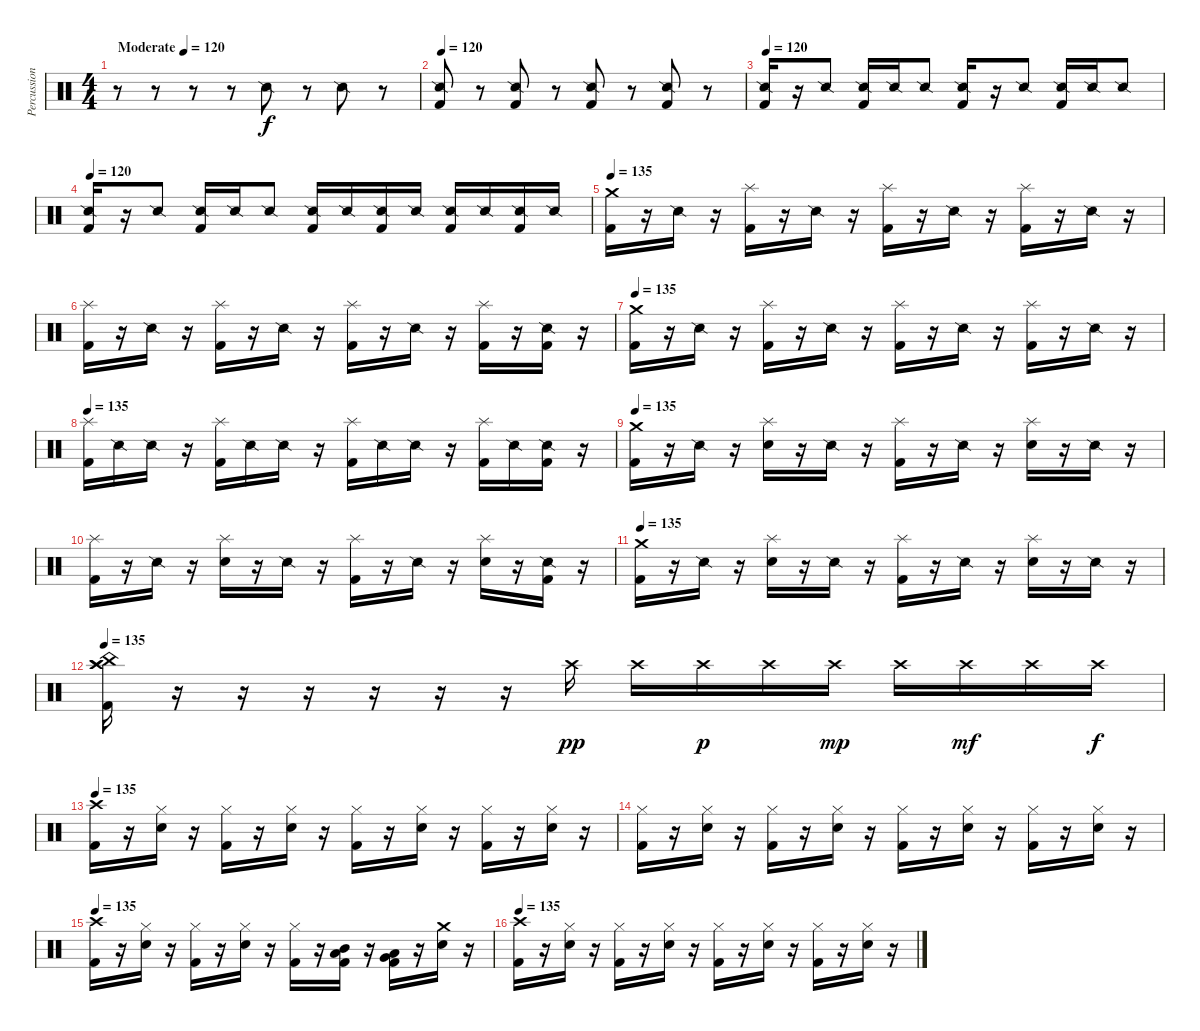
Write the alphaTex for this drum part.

\track ("Percussion" "Percussion") {instrument percussion}
\staff {score}
\articulation defaults
\ts (4 4)
\tempo (120 "Moderate")
\clef neutral
\ks c
r.8{dy f} r.8 r.8 r.8 "Snare (side stick) 2".8 r.8 "Snare (side stick) 2".8 r.8 |
\tempo 120
("Snare (side stick) 2" "Kick (hit) 2").8 r.8 ("Snare (side stick) 2" "Kick (hit) 2").8 r.8 ("Snare (side stick) 2" "Kick (hit) 2").8 r.8 ("Snare (side stick) 2" "Kick (hit) 2").8 r.8 |
\tempo 120
("Snare (side stick) 2" "Kick (hit) 2").16 r.16 "Snare (side stick) 2".8 ("Snare (side stick) 2" "Kick (hit) 2").16 "Snare (side stick) 2".16 "Snare (side stick) 2".8 ("Snare (side stick) 2" "Kick (hit) 2").16 r.16 "Snare (side stick) 2".8 ("Snare (side stick) 2" "Kick (hit) 2").16 "Snare (side stick) 2".16 "Snare (side stick) 2".8 |
\tempo 120
("Snare (side stick) 2" "Kick (hit) 2").16 r.16 "Snare (side stick) 2".8 ("Snare (side stick) 2" "Kick (hit) 2").16 "Snare (side stick) 2".16 "Snare (side stick) 2".8 ("Snare (side stick) 2" "Kick (hit) 2").16 "Snare (side stick) 2".16 ("Snare (side stick) 2" "Kick (hit) 2").16 "Snare (side stick) 2".16 ("Snare (side stick) 2" "Kick (hit) 2").16 "Snare (side stick) 2".16 ("Snare (side stick) 2" "Kick (hit) 2").16 "Snare (side stick) 2".16 |
\tempo 135
("Crash medium (hit)" "Kick (hit) 2").16 r.16 "Snare (side stick) 2".16 r.16 ("Splash (hit)" "Kick (hit) 2").16 r.16 "Snare (side stick) 2".16 r.16 ("Splash (hit)" "Kick (hit) 2").16 r.16 "Snare (side stick) 2".16 r.16 ("Splash (hit)" "Kick (hit) 2").16 r.16 "Snare (side stick) 2".16 r.16 |
("Splash (hit)" "Kick (hit) 2").16 r.16 "Snare (side stick) 2".16 r.16 ("Splash (hit)" "Kick (hit) 2").16 r.16 "Snare (side stick) 2".16 r.16 ("Splash (hit)" "Kick (hit) 2").16 r.16 "Snare (side stick) 2".16 r.16 ("Splash (hit)" "Kick (hit) 2").16 r.16 ("Snare (side stick) 2" "Kick (hit) 2").16 r.16 |
\tempo 135
("Crash medium (hit)" "Kick (hit) 2").16 r.16 "Snare (side stick) 2".16 r.16 ("Splash (hit)" "Kick (hit) 2").16 r.16 "Snare (side stick) 2".16 r.16 ("Splash (hit)" "Kick (hit) 2").16 r.16 "Snare (side stick) 2".16 r.16 ("Splash (hit)" "Kick (hit) 2").16 r.16 "Snare (side stick) 2".16 r.16 |
\tempo 135
("Splash (hit)" "Kick (hit) 2").16 "Snare (side stick) 2".16 "Snare (side stick) 2".16 r.16 ("Splash (hit)" "Kick (hit) 2").16 "Snare (side stick) 2".16 "Snare (side stick) 2".16 r.16 ("Splash (hit)" "Kick (hit) 2").16 "Snare (side stick) 2".16 "Snare (side stick) 2".16 r.16 ("Splash (hit)" "Kick (hit) 2").16 "Snare (side stick) 2".16 ("Snare (side stick) 2" "Kick (hit) 2").16 r.16 |
\tempo 135
("Crash medium (hit)" "Kick (hit) 2").16 r.16 "Snare (side stick) 2".16 r.16 ("Splash (hit)" "Snare (hit) 2").16 r.16 "Snare (side stick) 2".16 r.16 ("Splash (hit)" "Kick (hit) 2").16 r.16 "Snare (side stick) 2".16 r.16 ("Splash (hit)" "Snare (hit) 2").16 r.16 "Snare (side stick) 2".16 r.16 |
("Splash (hit)" "Kick (hit) 2").16 r.16 "Snare (side stick) 2".16 r.16 ("Splash (hit)" "Snare (hit) 2").16 r.16 "Snare (side stick) 2".16 r.16 ("Splash (hit)" "Kick (hit) 2").16 r.16 "Snare (side stick) 2".16 r.16 ("Splash (hit)" "Snare (hit) 2").16 r.16 ("Snare (side stick) 2" "Kick (hit) 2").16 r.16 |
\tempo 135
("Crash medium (hit)" "Kick (hit) 2").16 r.16 "Snare (side stick) 2".16 r.16 ("Splash (hit)" "Snare (hit) 2").16 r.16 "Snare (side stick) 2".16 r.16 ("Splash (hit)" "Kick (hit) 2").16 r.16 "Snare (side stick) 2".16 r.16 ("Splash (hit)" "Snare (hit) 2").16 r.16 "Snare (side stick) 2".16 r.16 |
\tempo 135
("Crash high (hit)" "Crash high (hit)" "China (hit)" "Kick (hit) 2").16 r.16 r.16 r.16 r.16 r.16 r.16 "Crash high (hit)".16{dy pp} "Crash high (hit)".16 "Crash high (hit)".16{dy p} "Crash high (hit)".16 "Crash high (hit)".16{dy mp} "Crash high (hit)".16 "Crash high (hit)".16{dy mf} "Crash high (hit)".16 "Crash high (hit)".16{dy f} |
\tempo 135
("Crash high (hit)" "Kick (hit) 2").16 r.16 ("Hi-Hat (closed)" "Snare (hit) 2").16 r.16 ("Hi-Hat (closed)" "Kick (hit) 2").16 r.16 ("Hi-Hat (closed)" "Snare (hit) 2").16 r.16 ("Hi-Hat (closed)" "Kick (hit) 2").16 r.16 ("Hi-Hat (closed)" "Snare (hit) 2").16 r.16 ("Hi-Hat (closed)" "Kick (hit) 2").16 r.16 ("Hi-Hat (closed)" "Snare (hit) 2").16 r.16 |
("Hi-Hat (closed)" "Kick (hit) 2").16 r.16 ("Hi-Hat (closed)" "Snare (hit) 2").16 r.16 ("Hi-Hat (closed)" "Kick (hit) 2").16 r.16 ("Hi-Hat (closed)" "Snare (hit) 2").16 r.16 ("Hi-Hat (closed)" "Kick (hit) 2").16 r.16 ("Hi-Hat (closed)" "Snare (hit) 2").16 r.16 ("Hi-Hat (closed)" "Kick (hit) 2").16 r.16 ("Hi-Hat (closed)" "Snare (hit) 2").16 r.16 |
\tempo 135
("Crash high (hit)" "Kick (hit) 2").16 r.16 ("Hi-Hat (closed)" "Snare (hit) 2").16 r.16 ("Hi-Hat (closed)" "Kick (hit) 2").16 r.16 ("Hi-Hat (closed)" "Snare (hit) 2").16 r.16 ("Hi-Hat (closed)" "Kick (hit) 2").16 r.16 ("Mid Tom (hit)" "Low Tom (hit)" "Kick (hit) 2").16 r.16 ("Low Tom (hit)" "Very Low Tom (hit)" "Kick (hit) 2").16 r.16 ("Crash medium (hit)" "Snare (hit) 2").16 r.16 |
\tempo 135
("Crash high (hit)" "Kick (hit) 2").16 r.16 ("Hi-Hat (closed)" "Snare (hit) 2").16 r.16 ("Hi-Hat (closed)" "Kick (hit) 2").16 r.16 ("Hi-Hat (closed)" "Snare (hit) 2").16 r.16 ("Hi-Hat (closed)" "Kick (hit) 2").16 r.16 ("Hi-Hat (closed)" "Snare (hit) 2").16 r.16 ("Hi-Hat (closed)" "Kick (hit) 2").16 r.16 ("Hi-Hat (closed)" "Snare (hit) 2").16 r.16
